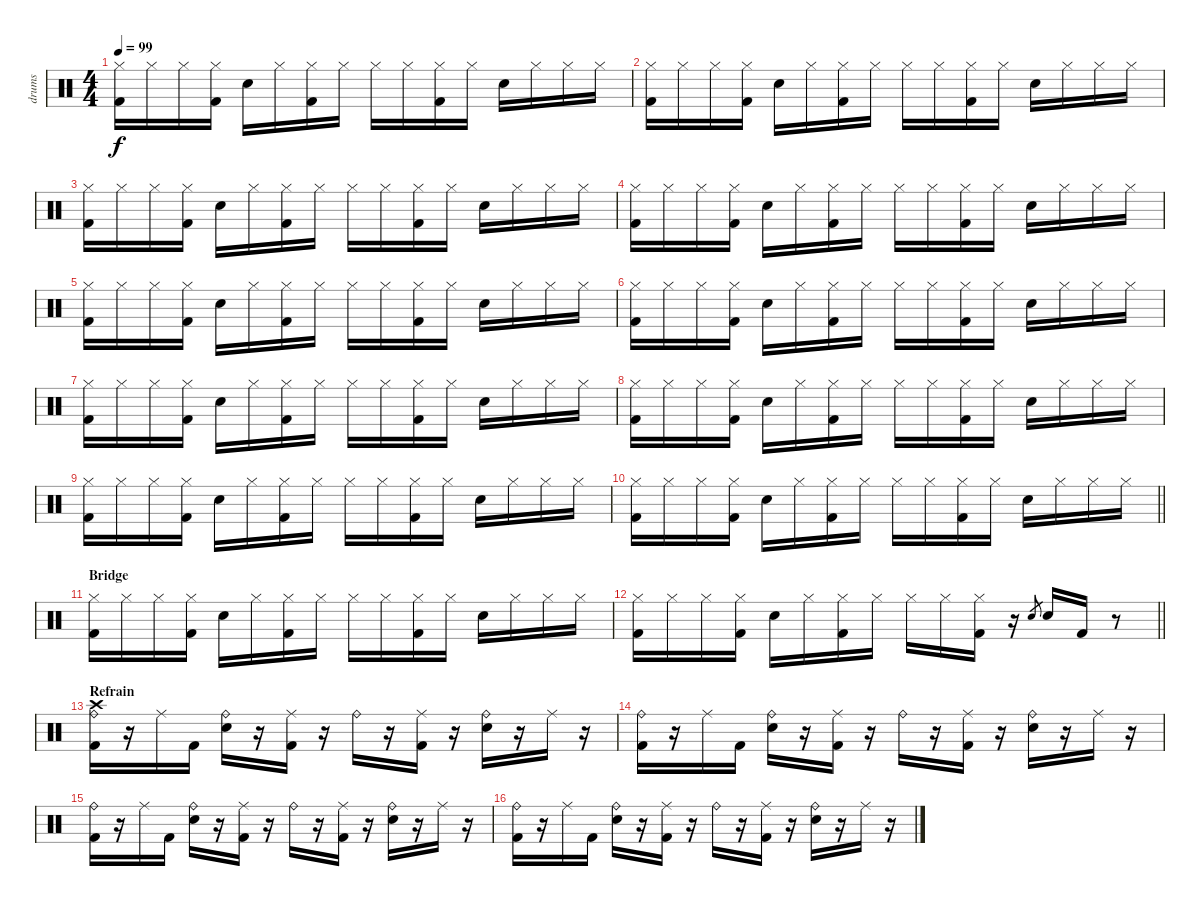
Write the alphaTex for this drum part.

\track ("drums" "drums") {instrument percussion}
\staff {score}
\articulation defaults
\ts (4 4)
\tempo 99
\clef neutral
\ks c
("Hi-Hat (closed)" "Kick (hit) 2").16{dy f} "Hi-Hat (closed)".16 "Hi-Hat (closed)".16 ("Hi-Hat (closed)" "Kick (hit) 2").16 "Snare (hit) 2".16 "Hi-Hat (closed)".16 ("Hi-Hat (closed)" "Kick (hit) 2").16 "Hi-Hat (closed)".16 "Hi-Hat (closed)"{nh}.16 "Hi-Hat (closed)".16 ("Hi-Hat (closed)" "Kick (hit) 2").16 "Hi-Hat (closed)".16 "Snare (hit) 2".16 "Hi-Hat (closed)".16 "Hi-Hat (closed)".16 "Hi-Hat (closed)".16 |
("Hi-Hat (closed)" "Kick (hit) 2").16 "Hi-Hat (closed)".16 "Hi-Hat (closed)".16 ("Hi-Hat (closed)" "Kick (hit) 2").16 "Snare (hit) 2".16 "Hi-Hat (closed)".16 ("Hi-Hat (closed)" "Kick (hit) 2").16 "Hi-Hat (closed)".16 "Hi-Hat (closed)"{nh}.16 "Hi-Hat (closed)".16 ("Hi-Hat (closed)" "Kick (hit) 2").16 "Hi-Hat (closed)".16 "Snare (hit) 2".16 "Hi-Hat (closed)".16 "Hi-Hat (closed)".16 "Hi-Hat (closed)".16 |
("Hi-Hat (closed)" "Kick (hit) 2").16 "Hi-Hat (closed)".16 "Hi-Hat (closed)".16 ("Hi-Hat (closed)" "Kick (hit) 2").16 "Snare (hit) 2".16 "Hi-Hat (closed)".16 ("Hi-Hat (closed)" "Kick (hit) 2").16 "Hi-Hat (closed)".16 "Hi-Hat (closed)"{nh}.16 "Hi-Hat (closed)".16 ("Hi-Hat (closed)" "Kick (hit) 2").16 "Hi-Hat (closed)".16 "Snare (hit) 2".16 "Hi-Hat (closed)".16 "Hi-Hat (closed)".16 "Hi-Hat (closed)".16 |
("Hi-Hat (closed)" "Kick (hit) 2").16 "Hi-Hat (closed)".16 "Hi-Hat (closed)".16 ("Hi-Hat (closed)" "Kick (hit) 2").16 "Snare (hit) 2".16 "Hi-Hat (closed)".16 ("Hi-Hat (closed)" "Kick (hit) 2").16 "Hi-Hat (closed)".16 "Hi-Hat (closed)"{nh}.16 "Hi-Hat (closed)".16 ("Hi-Hat (closed)" "Kick (hit) 2").16 "Hi-Hat (closed)".16 "Snare (hit) 2".16 "Hi-Hat (closed)".16 "Hi-Hat (closed)".16 "Hi-Hat (closed)".16 |
("Hi-Hat (closed)" "Kick (hit) 2").16 "Hi-Hat (closed)".16 "Hi-Hat (closed)".16 ("Hi-Hat (closed)" "Kick (hit) 2").16 "Snare (hit) 2".16 "Hi-Hat (closed)".16 ("Hi-Hat (closed)" "Kick (hit) 2").16 "Hi-Hat (closed)".16 "Hi-Hat (closed)"{nh}.16 "Hi-Hat (closed)".16 ("Hi-Hat (closed)" "Kick (hit) 2").16 "Hi-Hat (closed)".16 "Snare (hit) 2".16 "Hi-Hat (closed)".16 "Hi-Hat (closed)".16 "Hi-Hat (closed)".16 |
("Hi-Hat (closed)" "Kick (hit) 2").16 "Hi-Hat (closed)".16 "Hi-Hat (closed)".16 ("Hi-Hat (closed)" "Kick (hit) 2").16 "Snare (hit) 2".16 "Hi-Hat (closed)".16 ("Hi-Hat (closed)" "Kick (hit) 2").16 "Hi-Hat (closed)".16 "Hi-Hat (closed)"{nh}.16 "Hi-Hat (closed)".16 ("Hi-Hat (closed)" "Kick (hit) 2").16 "Hi-Hat (closed)".16 "Snare (hit) 2".16 "Hi-Hat (closed)".16 "Hi-Hat (closed)".16 "Hi-Hat (closed)".16 |
("Hi-Hat (closed)" "Kick (hit) 2").16 "Hi-Hat (closed)".16 "Hi-Hat (closed)".16 ("Hi-Hat (closed)" "Kick (hit) 2").16 "Snare (hit) 2".16 "Hi-Hat (closed)".16 ("Hi-Hat (closed)" "Kick (hit) 2").16 "Hi-Hat (closed)".16 "Hi-Hat (closed)"{nh}.16 "Hi-Hat (closed)".16 ("Hi-Hat (closed)" "Kick (hit) 2").16 "Hi-Hat (closed)".16 "Snare (hit) 2".16 "Hi-Hat (closed)".16 "Hi-Hat (closed)".16 "Hi-Hat (closed)".16 |
("Hi-Hat (closed)" "Kick (hit) 2").16 "Hi-Hat (closed)".16 "Hi-Hat (closed)".16 ("Hi-Hat (closed)" "Kick (hit) 2").16 "Snare (hit) 2".16 "Hi-Hat (closed)".16 ("Hi-Hat (closed)" "Kick (hit) 2").16 "Hi-Hat (closed)".16 "Hi-Hat (closed)"{nh}.16 "Hi-Hat (closed)".16 ("Hi-Hat (closed)" "Kick (hit) 2").16 "Hi-Hat (closed)".16 "Snare (hit) 2".16 "Hi-Hat (closed)".16 "Hi-Hat (closed)".16 "Hi-Hat (closed)".16 |
("Hi-Hat (closed)" "Kick (hit) 2").16 "Hi-Hat (closed)".16 "Hi-Hat (closed)".16 ("Hi-Hat (closed)" "Kick (hit) 2").16 "Snare (hit) 2".16 "Hi-Hat (closed)".16 ("Hi-Hat (closed)" "Kick (hit) 2").16 "Hi-Hat (closed)".16 "Hi-Hat (closed)"{nh}.16 "Hi-Hat (closed)".16 ("Hi-Hat (closed)" "Kick (hit) 2").16 "Hi-Hat (closed)".16 "Snare (hit) 2".16 "Hi-Hat (closed)".16 "Hi-Hat (closed)".16 "Hi-Hat (closed)".16 |
\barLineRight lightlight
("Hi-Hat (closed)" "Kick (hit) 2").16 "Hi-Hat (closed)".16 "Hi-Hat (closed)".16 ("Hi-Hat (closed)" "Kick (hit) 2").16 "Snare (hit) 2".16 "Hi-Hat (closed)".16 ("Hi-Hat (closed)" "Kick (hit) 2").16 "Hi-Hat (closed)".16 "Hi-Hat (closed)"{nh}.16 "Hi-Hat (closed)".16 ("Hi-Hat (closed)" "Kick (hit) 2").16 "Hi-Hat (closed)".16 "Snare (hit) 2".16 "Hi-Hat (closed)".16 "Hi-Hat (closed)".16 "Hi-Hat (closed)".16 |
\section ("" "Bridge")
("Hi-Hat (closed)" "Kick (hit) 2").16 "Hi-Hat (closed)".16 "Hi-Hat (closed)".16 ("Hi-Hat (closed)" "Kick (hit) 2").16 "Snare (hit) 2".16 "Hi-Hat (closed)".16 ("Hi-Hat (closed)" "Kick (hit) 2").16 "Hi-Hat (closed)".16 "Hi-Hat (closed)"{nh}.16 "Hi-Hat (closed)".16 ("Hi-Hat (closed)" "Kick (hit) 2").16 "Hi-Hat (closed)".16 "Snare (hit) 2".16 "Hi-Hat (closed)".16 "Hi-Hat (closed)".16 "Hi-Hat (closed)".16 |
\barLineRight lightlight
("Hi-Hat (closed)" "Kick (hit) 2").16 "Hi-Hat (closed)".16 "Hi-Hat (closed)".16 ("Hi-Hat (closed)" "Kick (hit) 2").16 "Snare (hit) 2".16 "Hi-Hat (closed)".16 ("Hi-Hat (closed)" "Kick (hit) 2").16 "Hi-Hat (closed)".16 "Hi-Hat (closed)"{nh}.16 "Hi-Hat (closed)".16 ("Hi-Hat (closed)" "Kick (hit) 2").16 r.16 "Snare (hit) 2".8{gr} "Snare (hit) 2".16 "Kick (hit) 2".16 r.8 |
\section ("" "Refrain")
("Crash high (hit)" "Ride (bell)" "Kick (hit) 2").16 r.16 "Ride (middle)".16 "Kick (hit) 2".16 ("Ride (bell)" "Snare (hit) 2").16 r.16 ("Ride (middle)" "Kick (hit) 2").16 r.16 "Ride (bell)"{nh}.16 r.16 ("Ride (middle)" "Kick (hit) 2").16 r.16 ("Ride (bell)" "Snare (hit) 2").16 r.16 "Ride (middle)".16 r.16 |
("Ride (bell)" "Kick (hit) 2").16 r.16 "Ride (middle)".16 "Kick (hit) 2".16 ("Ride (bell)" "Snare (hit) 2").16 r.16 ("Ride (middle)" "Kick (hit) 2").16 r.16 "Ride (bell)"{nh}.16 r.16 ("Ride (middle)" "Kick (hit) 2").16 r.16 ("Ride (bell)" "Snare (hit) 2").16 r.16 "Ride (middle)".16 r.16 |
("Ride (bell)" "Kick (hit) 2").16 r.16 "Ride (middle)".16 "Kick (hit) 2".16 ("Ride (bell)" "Snare (hit) 2").16 r.16 ("Ride (middle)" "Kick (hit) 2").16 r.16 "Ride (bell)"{nh}.16 r.16 ("Ride (middle)" "Kick (hit) 2").16 r.16 ("Ride (bell)" "Snare (hit) 2").16 r.16 "Ride (middle)".16 r.16 |
("Ride (bell)" "Kick (hit) 2").16 r.16 "Ride (middle)".16 "Kick (hit) 2".16 ("Ride (bell)" "Snare (hit) 2").16 r.16 ("Ride (middle)" "Kick (hit) 2").16 r.16 "Ride (bell)"{nh}.16 r.16 ("Ride (middle)" "Kick (hit) 2").16 r.16 ("Ride (bell)" "Snare (hit) 2").16 r.16 "Ride (middle)".16 r.16
